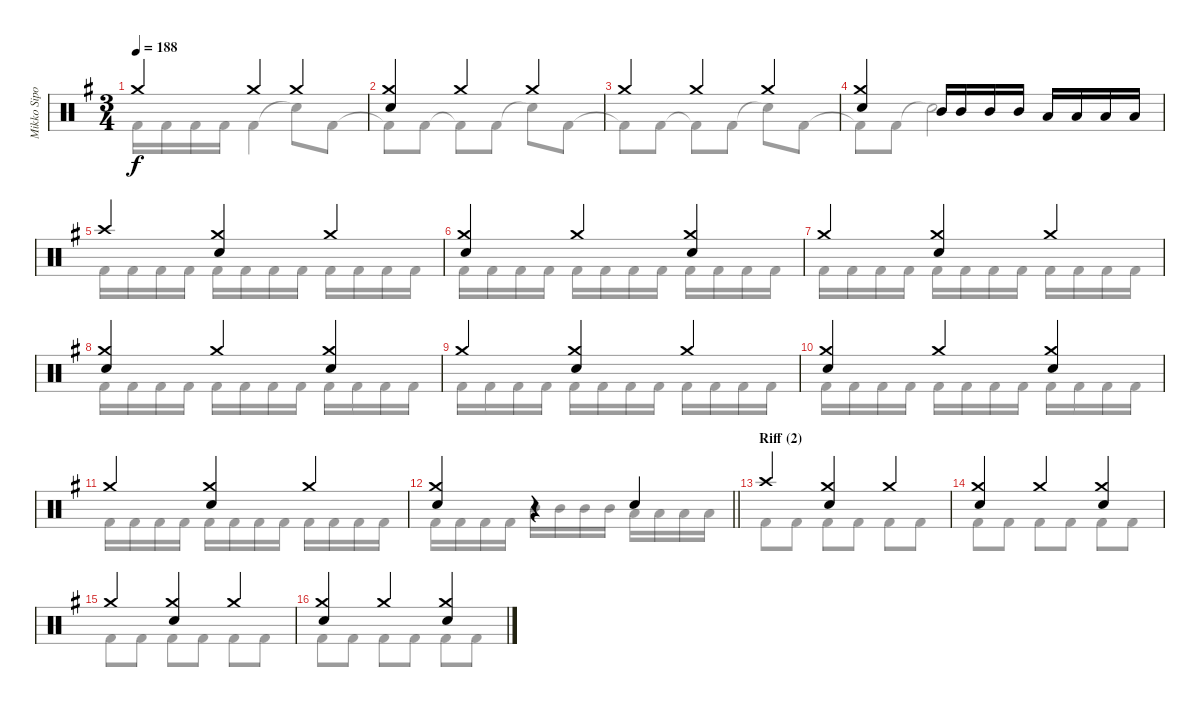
\track ("Mikko Sipola (drums)" "Mikko Sipo") {instrument percussion}
\staff {score}
\articulation defaults
\voice
\ts (3 4)
\tempo 188
\clef neutral
\ks eminor "Crash medium (hit)".4{dy f} "Crash medium (hit)".4 "Crash medium (hit)".4
|
("Crash medium (hit)" "Electric Snare (hit)").4 "Crash medium (hit)".4 "Crash medium (hit)".4 |
"Crash medium (hit)".4 "Crash medium (hit)".4 "Crash medium (hit)".4 |
("Crash medium (hit)" "Electric Snare (hit)").4 "Mid Tom (hit)".16 "Mid Tom (hit)".16 "Mid Tom (hit)".16 "Mid Tom (hit)".16 "Low Tom (hit)".16 "Low Tom (hit)".16 "Low Tom (hit)".16 "Low Tom (hit)".16 |
"Crash high (hit)".4 ("Crash medium (hit)" "Electric Snare (hit)").4 "Crash medium (hit)".4 |
("Crash medium (hit)" "Electric Snare (hit)").4 "Crash medium (hit)".4 ("Crash medium (hit)" "Electric Snare (hit)").4 |
"Crash medium (hit)".4 ("Crash medium (hit)" "Electric Snare (hit)").4 "Crash medium (hit)".4 |
("Crash medium (hit)" "Electric Snare (hit)").4 "Crash medium (hit)".4 ("Crash medium (hit)" "Electric Snare (hit)").4 |
"Crash medium (hit)".4 ("Crash medium (hit)" "Electric Snare (hit)").4 "Crash medium (hit)".4 |
("Crash medium (hit)" "Electric Snare (hit)").4 "Crash medium (hit)".4 ("Crash medium (hit)" "Electric Snare (hit)").4 |
"Crash medium (hit)".4 ("Crash medium (hit)" "Electric Snare (hit)").4 "Crash medium (hit)".4 |
\barLineRight lightlight
("Crash medium (hit)" "Electric Snare (hit)").4 r.4 "Electric Snare (hit)".4 |
\section ("" "Riff (2)")
"Crash high (hit)".4 ("Crash medium (hit)" "Electric Snare (hit)").4 "Crash medium (hit)".4 |
("Crash medium (hit)" "Electric Snare (hit)").4 "Crash medium (hit)".4 ("Crash medium (hit)" "Electric Snare (hit)").4 |
"Crash medium (hit)".4 ("Crash medium (hit)" "Electric Snare (hit)").4 "Crash medium (hit)".4 |
("Crash medium (hit)" "Electric Snare (hit)").4 "Crash medium (hit)".4 ("Crash medium (hit)" "Electric Snare (hit)").4
\voice
\clef neutral
\ottava regular
\simile none
\ks eminor "Kick (hit) 2".16{dy f} "Kick (hit) 2".16 "Kick (hit) 2".16 "Kick (hit) 2".16 "Kick (hit) 2".4 "Snare (hit)"{t}.8 "Kick (hit) 2".8
|
"Kick (hit) 2"{t}.8 "Kick (hit) 2".8 "Kick (hit) 2"{t}.8 "Kick (hit) 2".8 "Snare (hit)"{t}.8 "Kick (hit) 2".8 |
"Kick (hit) 2"{t}.8 "Kick (hit) 2".8 "Kick (hit) 2"{t}.8 "Kick (hit) 2".8 "Snare (hit)"{t}.8 "Kick (hit) 2".8 |
"Kick (hit) 2"{t}.8 "Kick (hit) 2".8 "Snare (hit)"{t}.2 |
"Kick (hit) 2".16 "Kick (hit) 2".16 "Kick (hit) 2".16 "Kick (hit) 2".16 "Kick (hit) 2".16 "Kick (hit) 2".16 "Kick (hit) 2".16 "Kick (hit) 2".16 "Kick (hit) 2".16 "Kick (hit) 2".16 "Kick (hit) 2".16 "Kick (hit) 2".16 |
"Kick (hit) 2".16 "Kick (hit) 2".16 "Kick (hit) 2".16 "Kick (hit) 2".16 "Kick (hit) 2".16 "Kick (hit) 2".16 "Kick (hit) 2".16 "Kick (hit) 2".16 "Kick (hit) 2".16 "Kick (hit) 2".16 "Kick (hit) 2".16 "Kick (hit) 2".16 |
"Kick (hit) 2".16 "Kick (hit) 2".16 "Kick (hit) 2".16 "Kick (hit) 2".16 "Kick (hit) 2".16 "Kick (hit) 2".16 "Kick (hit) 2".16 "Kick (hit) 2".16 "Kick (hit) 2".16 "Kick (hit) 2".16 "Kick (hit) 2".16 "Kick (hit) 2".16 |
"Kick (hit) 2".16 "Kick (hit) 2".16 "Kick (hit) 2".16 "Kick (hit) 2".16 "Kick (hit) 2".16 "Kick (hit) 2".16 "Kick (hit) 2".16 "Kick (hit) 2".16 "Kick (hit) 2".16 "Kick (hit) 2".16 "Kick (hit) 2".16 "Kick (hit) 2".16 |
"Kick (hit) 2".16 "Kick (hit) 2".16 "Kick (hit) 2".16 "Kick (hit) 2".16 "Kick (hit) 2".16 "Kick (hit) 2".16 "Kick (hit) 2".16 "Kick (hit) 2".16 "Kick (hit) 2".16 "Kick (hit) 2".16 "Kick (hit) 2".16 "Kick (hit) 2".16 |
"Kick (hit) 2".16 "Kick (hit) 2".16 "Kick (hit) 2".16 "Kick (hit) 2".16 "Kick (hit) 2".16 "Kick (hit) 2".16 "Kick (hit) 2".16 "Kick (hit) 2".16 "Kick (hit) 2".16 "Kick (hit) 2".16 "Kick (hit) 2".16 "Kick (hit) 2".16 |
"Kick (hit) 2".16 "Kick (hit) 2".16 "Kick (hit) 2".16 "Kick (hit) 2".16 "Kick (hit) 2".16 "Kick (hit) 2".16 "Kick (hit) 2".16 "Kick (hit) 2".16 "Kick (hit) 2".16 "Kick (hit) 2".16 "Kick (hit) 2".16 "Kick (hit) 2".16 |
\barLineRight lightlight "Kick (hit) 2".16 "Kick (hit) 2".16 "Kick (hit) 2".16 "Kick (hit) 2".16 "Mid Tom (hit)".16 "Mid Tom (hit)".16 "Mid Tom (hit)".16 "Mid Tom (hit)".16 "Low Tom (hit)".16 "Low Tom (hit)".16 "Low Tom (hit)".16 "Low Tom (hit)".16
|
"Kick (hit) 2".8 "Kick (hit) 2".8 "Kick (hit) 2".8 "Kick (hit) 2".8 "Kick (hit) 2".8 "Kick (hit) 2".8 |
"Kick (hit) 2".8 "Kick (hit) 2".8 "Kick (hit) 2".8 "Kick (hit) 2".8 "Kick (hit) 2".8 "Kick (hit) 2".8 |
"Kick (hit) 2".8 "Kick (hit) 2".8 "Kick (hit) 2".8 "Kick (hit) 2".8 "Kick (hit) 2".8 "Kick (hit) 2".8 |
"Kick (hit) 2".8 "Kick (hit) 2".8 "Kick (hit) 2".8 "Kick (hit) 2".8 "Kick (hit) 2".8 "Kick (hit) 2".8
